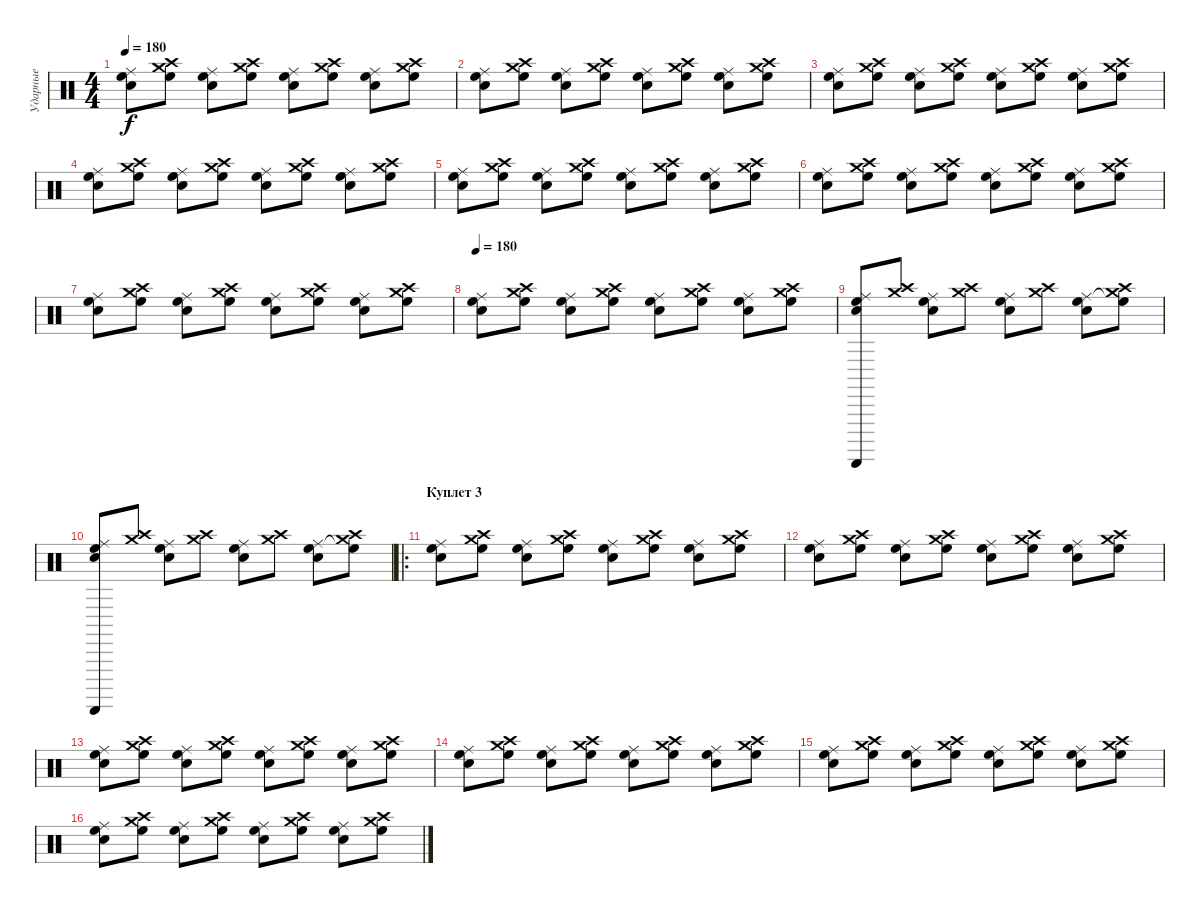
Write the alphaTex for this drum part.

\track ("Ударные" "Ударные") {instrument percussion}
\staff {score}
\articulation defaults
\ts (4 4)
\tempo 180
\clef neutral
\ks c
("High Floor Tom (hit)" "Ride (middle)" "Snare (hit) 2").8{dy f} ("High Floor Tom (hit)" "Crash high (hit)" "Crash medium (hit)").8 ("High Floor Tom (hit)" "Ride (middle)" "Snare (hit) 2").8 ("High Floor Tom (hit)" "Crash high (hit)" "Crash medium (hit)").8 ("High Floor Tom (hit)" "Ride (middle)" "Snare (hit) 2").8 ("High Floor Tom (hit)" "Crash high (hit)" "Crash medium (hit)").8 ("High Floor Tom (hit)" "Ride (middle)" "Snare (hit) 2").8 ("High Floor Tom (hit)" "Crash high (hit)" "Crash medium (hit)").8 |
("High Floor Tom (hit)" "Ride (middle)" "Snare (hit) 2").8 ("High Floor Tom (hit)" "Crash high (hit)" "Crash medium (hit)").8 ("High Floor Tom (hit)" "Ride (middle)" "Snare (hit) 2").8 ("High Floor Tom (hit)" "Crash high (hit)" "Crash medium (hit)").8 ("High Floor Tom (hit)" "Ride (middle)" "Snare (hit) 2").8 ("High Floor Tom (hit)" "Crash high (hit)" "Crash medium (hit)").8 ("High Floor Tom (hit)" "Ride (middle)" "Snare (hit) 2").8 ("High Floor Tom (hit)" "Crash high (hit)" "Crash medium (hit)").8 |
("High Floor Tom (hit)" "Ride (middle)" "Snare (hit) 2").8 ("High Floor Tom (hit)" "Crash high (hit)" "Crash medium (hit)").8 ("High Floor Tom (hit)" "Ride (middle)" "Snare (hit) 2").8 ("High Floor Tom (hit)" "Crash high (hit)" "Crash medium (hit)").8 ("High Floor Tom (hit)" "Ride (middle)" "Snare (hit) 2").8 ("High Floor Tom (hit)" "Crash high (hit)" "Crash medium (hit)").8 ("High Floor Tom (hit)" "Ride (middle)" "Snare (hit) 2").8 ("High Floor Tom (hit)" "Crash high (hit)" "Crash medium (hit)").8 |
("High Floor Tom (hit)" "Ride (middle)" "Snare (hit) 2").8 ("High Floor Tom (hit)" "Crash high (hit)" "Crash medium (hit)").8 ("High Floor Tom (hit)" "Ride (middle)" "Snare (hit) 2").8 ("High Floor Tom (hit)" "Crash high (hit)" "Crash medium (hit)").8 ("High Floor Tom (hit)" "Ride (middle)" "Snare (hit) 2").8 ("High Floor Tom (hit)" "Crash high (hit)" "Crash medium (hit)").8 ("High Floor Tom (hit)" "Ride (middle)" "Snare (hit) 2").8 ("High Floor Tom (hit)" "Crash high (hit)" "Crash medium (hit)").8 |
("High Floor Tom (hit)" "Ride (middle)" "Snare (hit) 2").8 ("High Floor Tom (hit)" "Crash high (hit)" "Crash medium (hit)").8 ("High Floor Tom (hit)" "Ride (middle)" "Snare (hit) 2").8 ("High Floor Tom (hit)" "Crash high (hit)" "Crash medium (hit)").8 ("High Floor Tom (hit)" "Ride (middle)" "Snare (hit) 2").8 ("High Floor Tom (hit)" "Crash high (hit)" "Crash medium (hit)").8 ("High Floor Tom (hit)" "Ride (middle)" "Snare (hit) 2").8 ("High Floor Tom (hit)" "Crash high (hit)" "Crash medium (hit)").8 |
("High Floor Tom (hit)" "Ride (middle)" "Snare (hit) 2").8 ("High Floor Tom (hit)" "Crash high (hit)" "Crash medium (hit)").8 ("High Floor Tom (hit)" "Ride (middle)" "Snare (hit) 2").8 ("High Floor Tom (hit)" "Crash high (hit)" "Crash medium (hit)").8 ("High Floor Tom (hit)" "Ride (middle)" "Snare (hit) 2").8 ("High Floor Tom (hit)" "Crash high (hit)" "Crash medium (hit)").8 ("High Floor Tom (hit)" "Ride (middle)" "Snare (hit) 2").8 ("High Floor Tom (hit)" "Crash high (hit)" "Crash medium (hit)").8 |
("High Floor Tom (hit)" "Ride (middle)" "Snare (hit) 2").8 ("High Floor Tom (hit)" "Crash high (hit)" "Crash medium (hit)").8 ("High Floor Tom (hit)" "Ride (middle)" "Snare (hit) 2").8 ("High Floor Tom (hit)" "Crash high (hit)" "Crash medium (hit)").8 ("High Floor Tom (hit)" "Ride (middle)" "Snare (hit) 2").8 ("High Floor Tom (hit)" "Crash high (hit)" "Crash medium (hit)").8 ("High Floor Tom (hit)" "Ride (middle)" "Snare (hit) 2").8 ("High Floor Tom (hit)" "Crash high (hit)" "Crash medium (hit)").8 |
\tempo 180
("High Floor Tom (hit)" "Ride (middle)" "Snare (hit) 2").8 ("High Floor Tom (hit)" "Crash high (hit)" "Crash medium (hit)").8 ("High Floor Tom (hit)" "Ride (middle)" "Snare (hit) 2").8 ("High Floor Tom (hit)" "Crash high (hit)" "Crash medium (hit)").8 ("High Floor Tom (hit)" "Ride (middle)" "Snare (hit) 2").8 ("High Floor Tom (hit)" "Crash high (hit)" "Crash medium (hit)").8 ("High Floor Tom (hit)" "Ride (middle)" "Snare (hit) 2").8 ("High Floor Tom (hit)" "Crash high (hit)" "Crash medium (hit)").8 |
("Guiro (scrap-return)" "High Floor Tom (hit)" "Ride (middle)" "Snare (hit) 2").8 ("Crash high (hit)" "Crash medium (hit)").8 ("High Floor Tom (hit)" "Ride (middle)" "Snare (hit) 2").8 ("Crash high (hit)" "Crash medium (hit)").8 ("High Floor Tom (hit)" "Ride (middle)" "Snare (hit) 2").8 ("Crash high (hit)" "Crash medium (hit)").8 ("High Floor Tom (hit)" "Ride (middle)" "Snare (hit) 2").8 ("High Floor Tom (hit)"{t} "Crash high (hit)" "Crash medium (hit)").8 |
("Guiro (scrap-return)" "High Floor Tom (hit)" "Ride (middle)" "Snare (hit) 2").8 ("Crash high (hit)" "Crash medium (hit)").8 ("High Floor Tom (hit)" "Ride (middle)" "Snare (hit) 2").8 ("Crash high (hit)" "Crash medium (hit)").8 ("High Floor Tom (hit)" "Ride (middle)" "Snare (hit) 2").8 ("Crash high (hit)" "Crash medium (hit)").8 ("High Floor Tom (hit)" "Ride (middle)" "Snare (hit) 2").8 ("High Floor Tom (hit)"{t} "Crash high (hit)" "Crash medium (hit)").8 |
\ro
\section ("" "Куплет 3")
("High Floor Tom (hit)" "Ride (middle)" "Snare (hit) 2").8 ("High Floor Tom (hit)" "Crash high (hit)" "Crash medium (hit)").8 ("High Floor Tom (hit)" "Ride (middle)" "Snare (hit) 2").8 ("High Floor Tom (hit)" "Crash high (hit)" "Crash medium (hit)").8 ("High Floor Tom (hit)" "Ride (middle)" "Snare (hit) 2").8 ("High Floor Tom (hit)" "Crash high (hit)" "Crash medium (hit)").8 ("High Floor Tom (hit)" "Ride (middle)" "Snare (hit) 2").8 ("High Floor Tom (hit)" "Crash high (hit)" "Crash medium (hit)").8 |
("High Floor Tom (hit)" "Ride (middle)" "Snare (hit) 2").8 ("High Floor Tom (hit)" "Crash high (hit)" "Crash medium (hit)").8 ("High Floor Tom (hit)" "Ride (middle)" "Snare (hit) 2").8 ("High Floor Tom (hit)" "Crash high (hit)" "Crash medium (hit)").8 ("High Floor Tom (hit)" "Ride (middle)" "Snare (hit) 2").8 ("High Floor Tom (hit)" "Crash high (hit)" "Crash medium (hit)").8 ("High Floor Tom (hit)" "Ride (middle)" "Snare (hit) 2").8 ("High Floor Tom (hit)" "Crash high (hit)" "Crash medium (hit)").8 |
("High Floor Tom (hit)" "Ride (middle)" "Snare (hit) 2").8 ("High Floor Tom (hit)" "Crash high (hit)" "Crash medium (hit)").8 ("High Floor Tom (hit)" "Ride (middle)" "Snare (hit) 2").8 ("High Floor Tom (hit)" "Crash high (hit)" "Crash medium (hit)").8 ("High Floor Tom (hit)" "Ride (middle)" "Snare (hit) 2").8 ("High Floor Tom (hit)" "Crash high (hit)" "Crash medium (hit)").8 ("High Floor Tom (hit)" "Ride (middle)" "Snare (hit) 2").8 ("High Floor Tom (hit)" "Crash high (hit)" "Crash medium (hit)").8 |
("High Floor Tom (hit)" "Ride (middle)" "Snare (hit) 2").8 ("High Floor Tom (hit)" "Crash high (hit)" "Crash medium (hit)").8 ("High Floor Tom (hit)" "Ride (middle)" "Snare (hit) 2").8 ("High Floor Tom (hit)" "Crash high (hit)" "Crash medium (hit)").8 ("High Floor Tom (hit)" "Ride (middle)" "Snare (hit) 2").8 ("High Floor Tom (hit)" "Crash high (hit)" "Crash medium (hit)").8 ("High Floor Tom (hit)" "Ride (middle)" "Snare (hit) 2").8 ("High Floor Tom (hit)" "Crash high (hit)" "Crash medium (hit)").8 |
("High Floor Tom (hit)" "Ride (middle)" "Snare (hit) 2").8 ("High Floor Tom (hit)" "Crash high (hit)" "Crash medium (hit)").8 ("High Floor Tom (hit)" "Ride (middle)" "Snare (hit) 2").8 ("High Floor Tom (hit)" "Crash high (hit)" "Crash medium (hit)").8 ("High Floor Tom (hit)" "Ride (middle)" "Snare (hit) 2").8 ("High Floor Tom (hit)" "Crash high (hit)" "Crash medium (hit)").8 ("High Floor Tom (hit)" "Ride (middle)" "Snare (hit) 2").8 ("High Floor Tom (hit)" "Crash high (hit)" "Crash medium (hit)").8 |
("High Floor Tom (hit)" "Ride (middle)" "Snare (hit) 2").8 ("High Floor Tom (hit)" "Crash high (hit)" "Crash medium (hit)").8 ("High Floor Tom (hit)" "Ride (middle)" "Snare (hit) 2").8 ("High Floor Tom (hit)" "Crash high (hit)" "Crash medium (hit)").8 ("High Floor Tom (hit)" "Ride (middle)" "Snare (hit) 2").8 ("High Floor Tom (hit)" "Crash high (hit)" "Crash medium (hit)").8 ("High Floor Tom (hit)" "Ride (middle)" "Snare (hit) 2").8 ("High Floor Tom (hit)" "Crash high (hit)" "Crash medium (hit)").8
